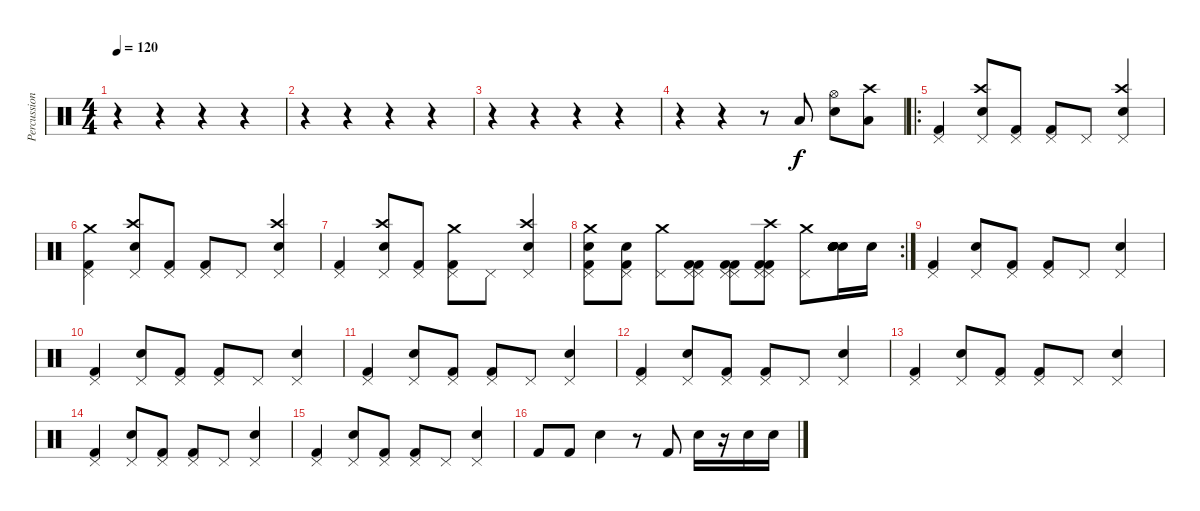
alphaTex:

\track ("Percussion" "Percussion") {instrument percussion}
\staff {score}
\articulation defaults
\ts (4 4)
\tempo 120
\clef neutral
\ks c
r.4{dy f} r.4 r.4 r.4 |
r.4 r.4 r.4 r.4 |
r.4 r.4 r.4 r.4 |
r.4 r.4 r.8 "Low Floor Tom (hit)".8 ("Hi-Hat (open)" "Electric Snare (hit)").8 ("Crash high (hit)" "Low Floor Tom (hit)").8 |
\ro
("Pedal Hi-Hat (hit)" "Kick (hit) 2").4 ("Pedal Hi-Hat (hit)" "Crash high (hit)" "Electric Snare (hit)").8 ("Pedal Hi-Hat (hit)" "Kick (hit) 2").8 ("Pedal Hi-Hat (hit)" "Kick (hit) 2").8 "Pedal Hi-Hat (hit)".8 ("Pedal Hi-Hat (hit)" "Electric Snare (hit)" "Crash high (hit)").4 |
("Pedal Hi-Hat (hit)" "Crash medium (hit)" "Kick (hit) 2").4 ("Pedal Hi-Hat (hit)" "Crash high (hit)" "Electric Snare (hit)").8 ("Pedal Hi-Hat (hit)" "Kick (hit) 2").8 ("Pedal Hi-Hat (hit)" "Kick (hit) 2").8 "Pedal Hi-Hat (hit)".8 ("Pedal Hi-Hat (hit)" "Electric Snare (hit)" "Crash high (hit)").4 |
("Pedal Hi-Hat (hit)" "Kick (hit) 2").4 ("Pedal Hi-Hat (hit)" "Crash high (hit)" "Electric Snare (hit)").8 ("Pedal Hi-Hat (hit)" "Kick (hit) 2").8 ("Pedal Hi-Hat (hit)" "Crash medium (hit)" "Kick (hit) 2").8 "Pedal Hi-Hat (hit)".8 ("Pedal Hi-Hat (hit)" "Electric Snare (hit)" "Crash high (hit)").4 |
\rc 2
("Pedal Hi-Hat (hit)" "Crash medium (hit)" "Electric Snare (hit)" "Kick (hit) 2").8 ("Pedal Hi-Hat (hit)" "Electric Snare (hit)" "Kick (hit) 2").8 ("Pedal Hi-Hat (hit)" "Crash medium (hit)").8 ("Pedal Hi-Hat (hit)" "Pedal Hi-Hat (hit)" "Kick (hit) 2" "Kick (hit) 2").8 ("Pedal Hi-Hat (hit)" "Pedal Hi-Hat (hit)" "Kick (hit) 2" "Kick (hit) 2").8 ("Pedal Hi-Hat (hit)" "Crash high (hit)" "Pedal Hi-Hat (hit)" "Kick (hit) 2" "Kick (hit) 2").8 ("Pedal Hi-Hat (hit)" "Crash medium (hit)").8 ("Snare (hit)"{x} "Snare (hit)"{x} "Snare (hit)"{x} "Snare (hit)"{x} "Electric Snare (hit)" "Snare (hit)"{x}).16 "Electric Snare (hit)".16 |
("Pedal Hi-Hat (hit)" "Kick (hit) 2").4 ("Pedal Hi-Hat (hit)" "Electric Snare (hit)").8 ("Pedal Hi-Hat (hit)" "Kick (hit) 2").8 ("Pedal Hi-Hat (hit)" "Kick (hit) 2").8 "Pedal Hi-Hat (hit)".8 ("Pedal Hi-Hat (hit)" "Electric Snare (hit)").4 |
("Pedal Hi-Hat (hit)" "Kick (hit) 2").4 ("Pedal Hi-Hat (hit)" "Electric Snare (hit)").8 ("Pedal Hi-Hat (hit)" "Kick (hit) 2").8 ("Pedal Hi-Hat (hit)" "Kick (hit) 2").8 "Pedal Hi-Hat (hit)".8 ("Pedal Hi-Hat (hit)" "Electric Snare (hit)").4 |
("Pedal Hi-Hat (hit)" "Kick (hit) 2").4 ("Pedal Hi-Hat (hit)" "Electric Snare (hit)").8 ("Pedal Hi-Hat (hit)" "Kick (hit) 2").8 ("Pedal Hi-Hat (hit)" "Kick (hit) 2").8 "Pedal Hi-Hat (hit)".8 ("Pedal Hi-Hat (hit)" "Electric Snare (hit)").4 |
("Pedal Hi-Hat (hit)" "Kick (hit) 2").4 ("Pedal Hi-Hat (hit)" "Electric Snare (hit)").8 ("Pedal Hi-Hat (hit)" "Kick (hit) 2").8 ("Pedal Hi-Hat (hit)" "Kick (hit) 2").8 "Pedal Hi-Hat (hit)".8 ("Pedal Hi-Hat (hit)" "Electric Snare (hit)").4 |
("Pedal Hi-Hat (hit)" "Kick (hit) 2").4 ("Pedal Hi-Hat (hit)" "Electric Snare (hit)").8 ("Pedal Hi-Hat (hit)" "Kick (hit) 2").8 ("Pedal Hi-Hat (hit)" "Kick (hit) 2").8 "Pedal Hi-Hat (hit)".8 ("Pedal Hi-Hat (hit)" "Electric Snare (hit)").4 |
("Pedal Hi-Hat (hit)" "Kick (hit) 2").4 ("Pedal Hi-Hat (hit)" "Electric Snare (hit)").8 ("Pedal Hi-Hat (hit)" "Kick (hit) 2").8 ("Pedal Hi-Hat (hit)" "Kick (hit) 2").8 "Pedal Hi-Hat (hit)".8 ("Pedal Hi-Hat (hit)" "Electric Snare (hit)").4 |
("Pedal Hi-Hat (hit)" "Kick (hit) 2").4 ("Pedal Hi-Hat (hit)" "Electric Snare (hit)").8 ("Pedal Hi-Hat (hit)" "Kick (hit) 2").8 ("Pedal Hi-Hat (hit)" "Kick (hit) 2").8 "Pedal Hi-Hat (hit)".8 ("Pedal Hi-Hat (hit)" "Electric Snare (hit)").4 |
"Kick (hit) 2".8 "Kick (hit) 2".8 "Electric Snare (hit)".4 r.8 "Kick (hit) 2".8 "Electric Snare (hit)".16 r.16 "Electric Snare (hit)".16 "Electric Snare (hit)".16
